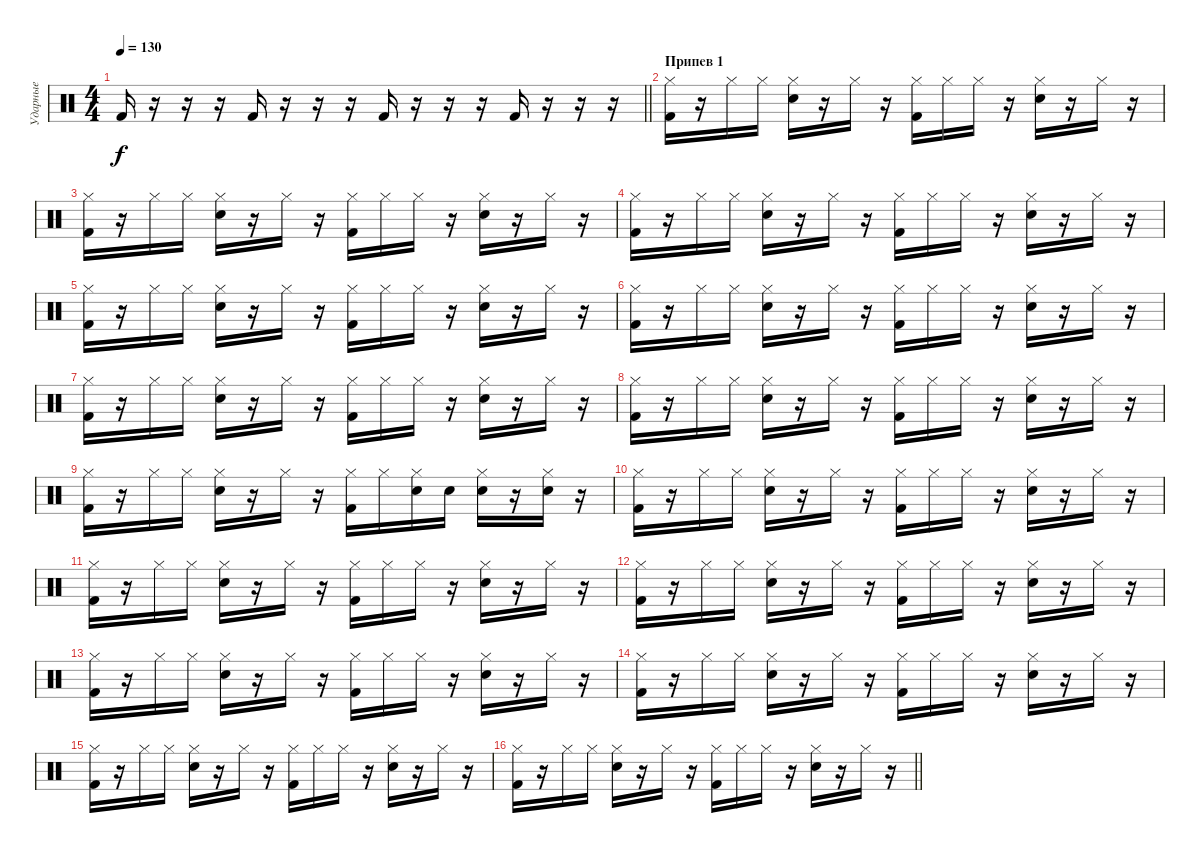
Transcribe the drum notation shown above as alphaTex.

\track ("Ударные" "Ударные") {instrument percussion}
\staff {score}
\articulation defaults
\ts (4 4)
\tempo 130
\clef neutral
\barLineRight lightlight
\ks c "Kick (hit) 2".16{dy f}
r.16 r.16 r.16 "Kick (hit) 2".16 r.16 r.16 r.16 "Kick (hit) 2".16 r.16 r.16 r.16 "Kick (hit) 2".16 r.16 r.16 r.16 |
\section ("" "Припев 1")
("Kick (hit) 2" "Hi-Hat (closed)").16 r.16 "Hi-Hat (closed)".16 "Hi-Hat (closed)".16 ("Snare (hit) 2" "Hi-Hat (closed)").16 r.16 "Hi-Hat (closed)".16 r.16 ("Kick (hit) 2" "Hi-Hat (closed)").16 "Hi-Hat (closed)".16 "Hi-Hat (closed)".16 r.16 ("Snare (hit) 2" "Hi-Hat (closed)").16 r.16 "Hi-Hat (closed)".16 r.16 |
("Kick (hit) 2" "Hi-Hat (closed)").16 r.16 "Hi-Hat (closed)".16 "Hi-Hat (closed)".16 ("Snare (hit) 2" "Hi-Hat (closed)").16 r.16 "Hi-Hat (closed)".16 r.16 ("Kick (hit) 2" "Hi-Hat (closed)").16 "Hi-Hat (closed)".16 "Hi-Hat (closed)".16 r.16 ("Snare (hit) 2" "Hi-Hat (closed)").16 r.16 "Hi-Hat (closed)".16 r.16 |
("Kick (hit) 2" "Hi-Hat (closed)").16 r.16 "Hi-Hat (closed)".16 "Hi-Hat (closed)".16 ("Snare (hit) 2" "Hi-Hat (closed)").16 r.16 "Hi-Hat (closed)".16 r.16 ("Kick (hit) 2" "Hi-Hat (closed)").16 "Hi-Hat (closed)".16 "Hi-Hat (closed)".16 r.16 ("Snare (hit) 2" "Hi-Hat (closed)").16 r.16 "Hi-Hat (closed)".16 r.16 |
("Kick (hit) 2" "Hi-Hat (closed)").16 r.16 "Hi-Hat (closed)".16 "Hi-Hat (closed)".16 ("Snare (hit) 2" "Hi-Hat (closed)").16 r.16 "Hi-Hat (closed)".16 r.16 ("Kick (hit) 2" "Hi-Hat (closed)").16 "Hi-Hat (closed)".16 "Hi-Hat (closed)".16 r.16 ("Snare (hit) 2" "Hi-Hat (closed)").16 r.16 "Hi-Hat (closed)".16 r.16 |
("Kick (hit) 2" "Hi-Hat (closed)").16 r.16 "Hi-Hat (closed)".16 "Hi-Hat (closed)".16 ("Snare (hit) 2" "Hi-Hat (closed)").16 r.16 "Hi-Hat (closed)".16 r.16 ("Kick (hit) 2" "Hi-Hat (closed)").16 "Hi-Hat (closed)".16 "Hi-Hat (closed)".16 r.16 ("Snare (hit) 2" "Hi-Hat (closed)").16 r.16 "Hi-Hat (closed)".16 r.16 |
("Kick (hit) 2" "Hi-Hat (closed)").16 r.16 "Hi-Hat (closed)".16 "Hi-Hat (closed)".16 ("Snare (hit) 2" "Hi-Hat (closed)").16 r.16 "Hi-Hat (closed)".16 r.16 ("Kick (hit) 2" "Hi-Hat (closed)").16 "Hi-Hat (closed)".16 "Hi-Hat (closed)".16 r.16 ("Snare (hit) 2" "Hi-Hat (closed)").16 r.16 "Hi-Hat (closed)".16 r.16 |
("Kick (hit) 2" "Hi-Hat (closed)").16 r.16 "Hi-Hat (closed)".16 "Hi-Hat (closed)".16 ("Snare (hit) 2" "Hi-Hat (closed)").16 r.16 "Hi-Hat (closed)".16 r.16 ("Kick (hit) 2" "Hi-Hat (closed)").16 "Hi-Hat (closed)".16 "Hi-Hat (closed)".16 r.16 ("Snare (hit) 2" "Hi-Hat (closed)").16 r.16 "Hi-Hat (closed)".16 r.16 |
("Kick (hit) 2" "Hi-Hat (closed)").16 r.16 "Hi-Hat (closed)".16 "Hi-Hat (closed)".16 ("Snare (hit) 2" "Hi-Hat (closed)").16 r.16 "Hi-Hat (closed)".16 r.16 ("Kick (hit) 2" "Hi-Hat (closed)").16 "Hi-Hat (closed)".16 ("Snare (hit) 2" "Hi-Hat (closed)").16 "Snare (hit) 2".16 ("Snare (hit) 2" "Hi-Hat (closed)").16 r.16 ("Snare (hit) 2" "Hi-Hat (closed)").16 r.16 |
("Kick (hit) 2" "Hi-Hat (closed)").16 r.16 "Hi-Hat (closed)".16 "Hi-Hat (closed)".16 ("Snare (hit) 2" "Hi-Hat (closed)").16 r.16 "Hi-Hat (closed)".16 r.16 ("Kick (hit) 2" "Hi-Hat (closed)").16 "Hi-Hat (closed)".16 "Hi-Hat (closed)".16 r.16 ("Snare (hit) 2" "Hi-Hat (closed)").16 r.16 "Hi-Hat (closed)".16 r.16 |
("Kick (hit) 2" "Hi-Hat (closed)").16 r.16 "Hi-Hat (closed)".16 "Hi-Hat (closed)".16 ("Snare (hit) 2" "Hi-Hat (closed)").16 r.16 "Hi-Hat (closed)".16 r.16 ("Kick (hit) 2" "Hi-Hat (closed)").16 "Hi-Hat (closed)".16 "Hi-Hat (closed)".16 r.16 ("Snare (hit) 2" "Hi-Hat (closed)").16 r.16 "Hi-Hat (closed)".16 r.16 |
("Kick (hit) 2" "Hi-Hat (closed)").16 r.16 "Hi-Hat (closed)".16 "Hi-Hat (closed)".16 ("Snare (hit) 2" "Hi-Hat (closed)").16 r.16 "Hi-Hat (closed)".16 r.16 ("Kick (hit) 2" "Hi-Hat (closed)").16 "Hi-Hat (closed)".16 "Hi-Hat (closed)".16 r.16 ("Snare (hit) 2" "Hi-Hat (closed)").16 r.16 "Hi-Hat (closed)".16 r.16 |
("Kick (hit) 2" "Hi-Hat (closed)").16 r.16 "Hi-Hat (closed)".16 "Hi-Hat (closed)".16 ("Snare (hit) 2" "Hi-Hat (closed)").16 r.16 "Hi-Hat (closed)".16 r.16 ("Kick (hit) 2" "Hi-Hat (closed)").16 "Hi-Hat (closed)".16 "Hi-Hat (closed)".16 r.16 ("Snare (hit) 2" "Hi-Hat (closed)").16 r.16 "Hi-Hat (closed)".16 r.16 |
("Kick (hit) 2" "Hi-Hat (closed)").16 r.16 "Hi-Hat (closed)".16 "Hi-Hat (closed)".16 ("Snare (hit) 2" "Hi-Hat (closed)").16 r.16 "Hi-Hat (closed)".16 r.16 ("Kick (hit) 2" "Hi-Hat (closed)").16 "Hi-Hat (closed)".16 "Hi-Hat (closed)".16 r.16 ("Snare (hit) 2" "Hi-Hat (closed)").16 r.16 "Hi-Hat (closed)".16 r.16 |
("Kick (hit) 2" "Hi-Hat (closed)").16 r.16 "Hi-Hat (closed)".16 "Hi-Hat (closed)".16 ("Snare (hit) 2" "Hi-Hat (closed)").16 r.16 "Hi-Hat (closed)".16 r.16 ("Kick (hit) 2" "Hi-Hat (closed)").16 "Hi-Hat (closed)".16 "Hi-Hat (closed)".16 r.16 ("Snare (hit) 2" "Hi-Hat (closed)").16 r.16 "Hi-Hat (closed)".16 r.16 |
\barLineRight lightlight
("Kick (hit) 2" "Hi-Hat (closed)").16 r.16 "Hi-Hat (closed)".16 "Hi-Hat (closed)".16 ("Snare (hit) 2" "Hi-Hat (closed)").16 r.16 "Hi-Hat (closed)".16 r.16 ("Kick (hit) 2" "Hi-Hat (closed)").16 "Hi-Hat (closed)".16 "Hi-Hat (closed)".16 r.16 ("Snare (hit) 2" "Hi-Hat (closed)").16 r.16 "Hi-Hat (closed)".16 r.16
